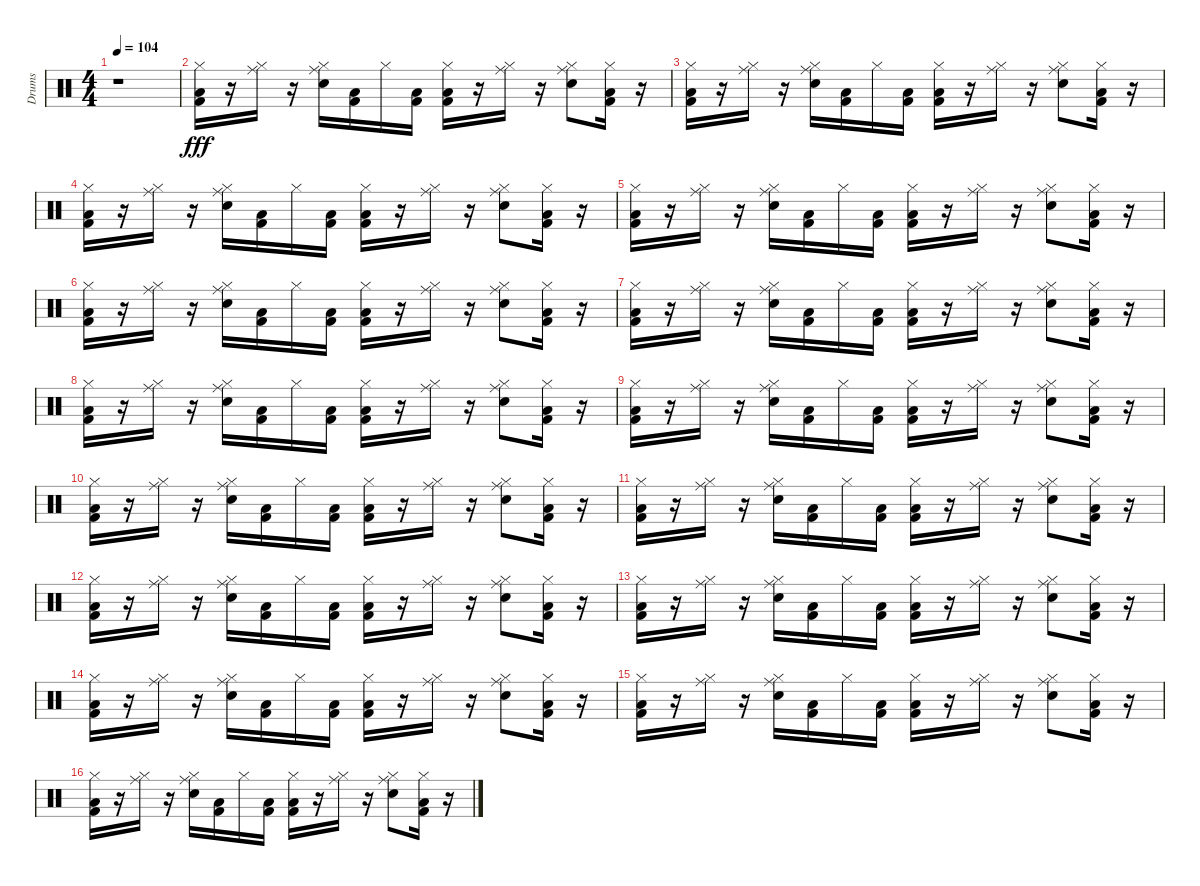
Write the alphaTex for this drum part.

\track ("Drums" "Drums") {instrument percussion}
\staff {score}
\articulation defaults
\ts (4 4)
\tempo 104
\clef neutral
\ks c
r.1{dy fff} |
("Hi-Hat (closed)" "Low Floor Tom (hit)" "Kick (hit) 2").16 r.16 ("Hi-Hat (closed)" "Ride (middle)").16 r.16 ("Hi-Hat (closed)" "Ride (middle)" "Electric Snare (hit)").16 ("Kick (hit) 2" "Low Floor Tom (hit)").16 "Hi-Hat (closed)".16 ("Kick (hit) 2" "Low Floor Tom (hit)").16 ("Kick (hit) 2" "Low Floor Tom (hit)" "Hi-Hat (closed)").16 r.16 ("Ride (middle)" "Hi-Hat (closed)").16 r.16 ("Hi-Hat (closed)" "Electric Snare (hit)" "Ride (middle)").8 ("Low Floor Tom (hit)" "Hi-Hat (closed)" "Kick (hit) 2").16 r.16 |
("Hi-Hat (closed)" "Kick (hit) 2" "Low Floor Tom (hit)").16 r.16 ("Hi-Hat (closed)" "Ride (middle)").16 r.16 ("Electric Snare (hit)" "Hi-Hat (closed)" "Ride (middle)").16 ("Kick (hit) 2" "Low Floor Tom (hit)").16 "Hi-Hat (closed)".16 ("Kick (hit) 2" "Low Floor Tom (hit)").16 ("Kick (hit) 2" "Hi-Hat (closed)" "Low Floor Tom (hit)").16 r.16 ("Hi-Hat (closed)" "Ride (middle)").16 r.16 ("Hi-Hat (closed)" "Electric Snare (hit)" "Ride (middle)").8 ("Hi-Hat (closed)" "Low Floor Tom (hit)" "Kick (hit) 2").16 r.16 |
("Kick (hit) 2" "Low Floor Tom (hit)" "Hi-Hat (closed)").16 r.16 ("Hi-Hat (closed)" "Ride (middle)").16 r.16 ("Hi-Hat (closed)" "Ride (middle)" "Electric Snare (hit)").16 ("Low Floor Tom (hit)" "Kick (hit) 2").16 "Hi-Hat (closed)".16 ("Low Floor Tom (hit)" "Kick (hit) 2").16 ("Low Floor Tom (hit)" "Kick (hit) 2" "Hi-Hat (closed)").16 r.16 ("Hi-Hat (closed)" "Ride (middle)").16 r.16 ("Hi-Hat (closed)" "Electric Snare (hit)" "Ride (middle)").8 ("Hi-Hat (closed)" "Kick (hit) 2" "Low Floor Tom (hit)").16 r.16 |
("Hi-Hat (closed)" "Kick (hit) 2" "Low Floor Tom (hit)").16 r.16 ("Hi-Hat (closed)" "Ride (middle)").16 r.16 ("Hi-Hat (closed)" "Ride (middle)" "Electric Snare (hit)").16 ("Kick (hit) 2" "Low Floor Tom (hit)").16 "Hi-Hat (closed)".16 ("Kick (hit) 2" "Low Floor Tom (hit)").16 ("Low Floor Tom (hit)" "Hi-Hat (closed)" "Kick (hit) 2").16 r.16 ("Hi-Hat (closed)" "Ride (middle)").16 r.16 ("Ride (middle)" "Electric Snare (hit)" "Hi-Hat (closed)").8 ("Kick (hit) 2" "Hi-Hat (closed)" "Low Floor Tom (hit)").16 r.16 |
("Kick (hit) 2" "Hi-Hat (closed)" "Low Floor Tom (hit)").16 r.16 ("Ride (middle)" "Hi-Hat (closed)").16 r.16 ("Hi-Hat (closed)" "Ride (middle)" "Electric Snare (hit)").16 ("Low Floor Tom (hit)" "Kick (hit) 2").16 "Hi-Hat (closed)".16 ("Kick (hit) 2" "Low Floor Tom (hit)").16 ("Hi-Hat (closed)" "Low Floor Tom (hit)" "Kick (hit) 2").16 r.16 ("Hi-Hat (closed)" "Ride (middle)").16 r.16 ("Electric Snare (hit)" "Hi-Hat (closed)" "Ride (middle)").8 ("Kick (hit) 2" "Low Floor Tom (hit)" "Hi-Hat (closed)").16 r.16 |
("Kick (hit) 2" "Low Floor Tom (hit)" "Hi-Hat (closed)").16 r.16 ("Ride (middle)" "Hi-Hat (closed)").16 r.16 ("Ride (middle)" "Hi-Hat (closed)" "Electric Snare (hit)").16 ("Kick (hit) 2" "Low Floor Tom (hit)").16 "Hi-Hat (closed)".16 ("Low Floor Tom (hit)" "Kick (hit) 2").16 ("Low Floor Tom (hit)" "Kick (hit) 2" "Hi-Hat (closed)").16 r.16 ("Hi-Hat (closed)" "Ride (middle)").16 r.16 ("Hi-Hat (closed)" "Ride (middle)" "Electric Snare (hit)").8 ("Kick (hit) 2" "Hi-Hat (closed)" "Low Floor Tom (hit)").16 r.16 |
("Kick (hit) 2" "Low Floor Tom (hit)" "Hi-Hat (closed)").16 r.16 ("Hi-Hat (closed)" "Ride (middle)").16 r.16 ("Electric Snare (hit)" "Ride (middle)" "Hi-Hat (closed)").16 ("Kick (hit) 2" "Low Floor Tom (hit)").16 "Hi-Hat (closed)".16 ("Kick (hit) 2" "Low Floor Tom (hit)").16 ("Kick (hit) 2" "Low Floor Tom (hit)" "Hi-Hat (closed)").16 r.16 ("Ride (middle)" "Hi-Hat (closed)").16 r.16 ("Ride (middle)" "Electric Snare (hit)" "Hi-Hat (closed)").8 ("Hi-Hat (closed)" "Kick (hit) 2" "Low Floor Tom (hit)").16 r.16 |
("Kick (hit) 2" "Low Floor Tom (hit)" "Hi-Hat (closed)").16 r.16 ("Ride (middle)" "Hi-Hat (closed)").16 r.16 ("Hi-Hat (closed)" "Ride (middle)" "Electric Snare (hit)").16 ("Kick (hit) 2" "Low Floor Tom (hit)").16 "Hi-Hat (closed)".16 ("Kick (hit) 2" "Low Floor Tom (hit)").16 ("Hi-Hat (closed)" "Kick (hit) 2" "Low Floor Tom (hit)").16 r.16 ("Hi-Hat (closed)" "Ride (middle)").16 r.16 ("Electric Snare (hit)" "Ride (middle)" "Hi-Hat (closed)").8 ("Low Floor Tom (hit)" "Hi-Hat (closed)" "Kick (hit) 2").16 r.16 |
("Kick (hit) 2" "Hi-Hat (closed)" "Low Floor Tom (hit)").16 r.16 ("Ride (middle)" "Hi-Hat (closed)").16 r.16 ("Hi-Hat (closed)" "Electric Snare (hit)" "Ride (middle)").16 ("Low Floor Tom (hit)" "Kick (hit) 2").16 "Hi-Hat (closed)".16 ("Low Floor Tom (hit)" "Kick (hit) 2").16 ("Low Floor Tom (hit)" "Kick (hit) 2" "Hi-Hat (closed)").16 r.16 ("Hi-Hat (closed)" "Ride (middle)").16 r.16 ("Electric Snare (hit)" "Ride (middle)" "Hi-Hat (closed)").8 ("Low Floor Tom (hit)" "Kick (hit) 2" "Hi-Hat (closed)").16 r.16 |
("Low Floor Tom (hit)" "Hi-Hat (closed)" "Kick (hit) 2").16 r.16 ("Ride (middle)" "Hi-Hat (closed)").16 r.16 ("Hi-Hat (closed)" "Ride (middle)" "Electric Snare (hit)").16 ("Kick (hit) 2" "Low Floor Tom (hit)").16 "Hi-Hat (closed)".16 ("Kick (hit) 2" "Low Floor Tom (hit)").16 ("Hi-Hat (closed)" "Kick (hit) 2" "Low Floor Tom (hit)").16 r.16 ("Hi-Hat (closed)" "Ride (middle)").16 r.16 ("Electric Snare (hit)" "Hi-Hat (closed)" "Ride (middle)").8 ("Low Floor Tom (hit)" "Kick (hit) 2" "Hi-Hat (closed)").16 r.16 |
("Kick (hit) 2" "Hi-Hat (closed)" "Low Floor Tom (hit)").16 r.16 ("Ride (middle)" "Hi-Hat (closed)").16 r.16 ("Ride (middle)" "Electric Snare (hit)" "Hi-Hat (closed)").16 ("Low Floor Tom (hit)" "Kick (hit) 2").16 "Hi-Hat (closed)".16 ("Kick (hit) 2" "Low Floor Tom (hit)").16 ("Kick (hit) 2" "Low Floor Tom (hit)" "Hi-Hat (closed)").16 r.16 ("Ride (middle)" "Hi-Hat (closed)").16 r.16 ("Ride (middle)" "Hi-Hat (closed)" "Electric Snare (hit)").8 ("Kick (hit) 2" "Low Floor Tom (hit)" "Hi-Hat (closed)").16 r.16 |
("Hi-Hat (closed)" "Kick (hit) 2" "Low Floor Tom (hit)").16 r.16 ("Hi-Hat (closed)" "Ride (middle)").16 r.16 ("Hi-Hat (closed)" "Ride (middle)" "Electric Snare (hit)").16 ("Low Floor Tom (hit)" "Kick (hit) 2").16 "Hi-Hat (closed)".16 ("Low Floor Tom (hit)" "Kick (hit) 2").16 ("Low Floor Tom (hit)" "Kick (hit) 2" "Hi-Hat (closed)").16 r.16 ("Ride (middle)" "Hi-Hat (closed)").16 r.16 ("Electric Snare (hit)" "Hi-Hat (closed)" "Ride (middle)").8 ("Hi-Hat (closed)" "Low Floor Tom (hit)" "Kick (hit) 2").16 r.16 |
("Low Floor Tom (hit)" "Kick (hit) 2" "Hi-Hat (closed)").16 r.16 ("Hi-Hat (closed)" "Ride (middle)").16 r.16 ("Hi-Hat (closed)" "Electric Snare (hit)" "Ride (middle)").16 ("Low Floor Tom (hit)" "Kick (hit) 2").16 "Hi-Hat (closed)".16 ("Kick (hit) 2" "Low Floor Tom (hit)").16 ("Hi-Hat (closed)" "Low Floor Tom (hit)" "Kick (hit) 2").16 r.16 ("Ride (middle)" "Hi-Hat (closed)").16 r.16 ("Ride (middle)" "Electric Snare (hit)" "Hi-Hat (closed)").8 ("Hi-Hat (closed)" "Kick (hit) 2" "Low Floor Tom (hit)").16 r.16 |
("Kick (hit) 2" "Hi-Hat (closed)" "Low Floor Tom (hit)").16 r.16 ("Ride (middle)" "Hi-Hat (closed)").16 r.16 ("Electric Snare (hit)" "Hi-Hat (closed)" "Ride (middle)").16 ("Low Floor Tom (hit)" "Kick (hit) 2").16 "Hi-Hat (closed)".16 ("Kick (hit) 2" "Low Floor Tom (hit)").16 ("Kick (hit) 2" "Low Floor Tom (hit)" "Hi-Hat (closed)").16 r.16 ("Hi-Hat (closed)" "Ride (middle)").16 r.16 ("Ride (middle)" "Hi-Hat (closed)" "Electric Snare (hit)").8 ("Hi-Hat (closed)" "Low Floor Tom (hit)" "Kick (hit) 2").16 r.16 |
("Hi-Hat (closed)" "Low Floor Tom (hit)" "Kick (hit) 2").16 r.16 ("Ride (middle)" "Hi-Hat (closed)").16 r.16 ("Electric Snare (hit)" "Hi-Hat (closed)" "Ride (middle)").16 ("Kick (hit) 2" "Low Floor Tom (hit)").16 "Hi-Hat (closed)".16 ("Low Floor Tom (hit)" "Kick (hit) 2").16 ("Hi-Hat (closed)" "Low Floor Tom (hit)" "Kick (hit) 2").16 r.16 ("Hi-Hat (closed)" "Ride (middle)").16 r.16 ("Hi-Hat (closed)" "Electric Snare (hit)" "Ride (middle)").8 ("Low Floor Tom (hit)" "Kick (hit) 2" "Hi-Hat (closed)").16 r.16
